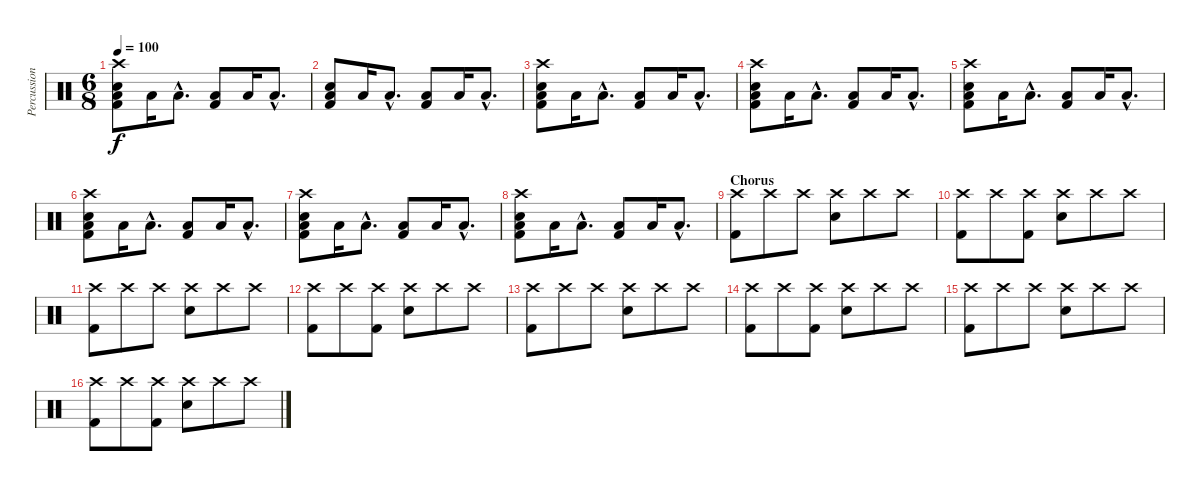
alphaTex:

\track ("Percussion" "Percussion") {instrument percussion}
\staff {score}
\articulation defaults
\ts (6 8)
\tempo 100
\clef neutral
\ks c
("Crash high (hit)" "Electric Snare (hit)" "Low Floor Tom (hit)" "Kick (hit) 2").8{dy f} "Low Floor Tom (hit)".16 "Low Floor Tom (hit)"{hac}.8{d} ("Low Floor Tom (hit)" "Kick (hit) 2").8 "Low Floor Tom (hit)".16 "Low Floor Tom (hit)"{hac}.8{d} |
("Electric Snare (hit)" "Low Floor Tom (hit)" "Kick (hit) 2").8 "Low Floor Tom (hit)".16 "Low Floor Tom (hit)"{hac}.8{d} ("Low Floor Tom (hit)" "Kick (hit) 2").8 "Low Floor Tom (hit)".16 "Low Floor Tom (hit)"{hac}.8{d} |
("Crash high (hit)" "Electric Snare (hit)" "Low Floor Tom (hit)" "Kick (hit) 2").8 "Low Floor Tom (hit)".16 "Low Floor Tom (hit)"{hac}.8{d} ("Low Floor Tom (hit)" "Kick (hit) 2").8 "Low Floor Tom (hit)".16 "Low Floor Tom (hit)"{hac}.8{d} |
("Crash high (hit)" "Electric Snare (hit)" "Low Floor Tom (hit)" "Kick (hit) 2").8 "Low Floor Tom (hit)".16 "Low Floor Tom (hit)"{hac}.8{d} ("Low Floor Tom (hit)" "Kick (hit) 2").8 "Low Floor Tom (hit)".16 "Low Floor Tom (hit)"{hac}.8{d} |
("Crash high (hit)" "Electric Snare (hit)" "Low Floor Tom (hit)" "Kick (hit) 2").8 "Low Floor Tom (hit)".16 "Low Floor Tom (hit)"{hac}.8{d} ("Low Floor Tom (hit)" "Kick (hit) 2").8 "Low Floor Tom (hit)".16 "Low Floor Tom (hit)"{hac}.8{d} |
("Crash high (hit)" "Electric Snare (hit)" "Low Floor Tom (hit)" "Kick (hit) 2").8 "Low Floor Tom (hit)".16 "Low Floor Tom (hit)"{hac}.8{d} ("Low Floor Tom (hit)" "Kick (hit) 2").8 "Low Floor Tom (hit)".16 "Low Floor Tom (hit)"{hac}.8{d} |
("Crash high (hit)" "Electric Snare (hit)" "Low Floor Tom (hit)" "Kick (hit) 2").8 "Low Floor Tom (hit)".16 "Low Floor Tom (hit)"{hac}.8{d} ("Low Floor Tom (hit)" "Kick (hit) 2").8 "Low Floor Tom (hit)".16 "Low Floor Tom (hit)"{hac}.8{d} |
("Crash high (hit)" "Electric Snare (hit)" "Low Floor Tom (hit)" "Kick (hit) 2").8 "Low Floor Tom (hit)".16 "Low Floor Tom (hit)"{hac}.8{d} ("Low Floor Tom (hit)" "Kick (hit) 2").8 "Low Floor Tom (hit)".16 "Low Floor Tom (hit)"{hac}.8{d} |
\section ("" "Chorus")
("Crash high (hit)" "Kick (hit) 2").8 "Crash high (hit)".8 "Crash high (hit)".8 ("Crash high (hit)" "Electric Snare (hit)").8 "Crash high (hit)".8 "Crash high (hit)".8 |
("Crash high (hit)" "Kick (hit) 2").8 "Crash high (hit)".8 ("Crash high (hit)" "Kick (hit) 2").8 ("Crash high (hit)" "Electric Snare (hit)").8 "Crash high (hit)".8 "Crash high (hit)".8 |
("Crash high (hit)" "Kick (hit) 2").8 "Crash high (hit)".8 "Crash high (hit)".8 ("Crash high (hit)" "Electric Snare (hit)").8 "Crash high (hit)".8 "Crash high (hit)".8 |
("Crash high (hit)" "Kick (hit) 2").8 "Crash high (hit)".8 ("Crash high (hit)" "Kick (hit) 2").8 ("Crash high (hit)" "Electric Snare (hit)").8 "Crash high (hit)".8 "Crash high (hit)".8 |
("Crash high (hit)" "Kick (hit) 2").8 "Crash high (hit)".8 "Crash high (hit)".8 ("Crash high (hit)" "Electric Snare (hit)").8 "Crash high (hit)".8 "Crash high (hit)".8 |
("Crash high (hit)" "Kick (hit) 2").8 "Crash high (hit)".8 ("Crash high (hit)" "Kick (hit) 2").8 ("Crash high (hit)" "Electric Snare (hit)").8 "Crash high (hit)".8 "Crash high (hit)".8 |
("Crash high (hit)" "Kick (hit) 2").8 "Crash high (hit)".8 "Crash high (hit)".8 ("Crash high (hit)" "Electric Snare (hit)").8 "Crash high (hit)".8 "Crash high (hit)".8 |
("Crash high (hit)" "Kick (hit) 2").8 "Crash high (hit)".8 ("Crash high (hit)" "Kick (hit) 2").8 ("Crash high (hit)" "Electric Snare (hit)").8 "Crash high (hit)".8 "Crash high (hit)".8
